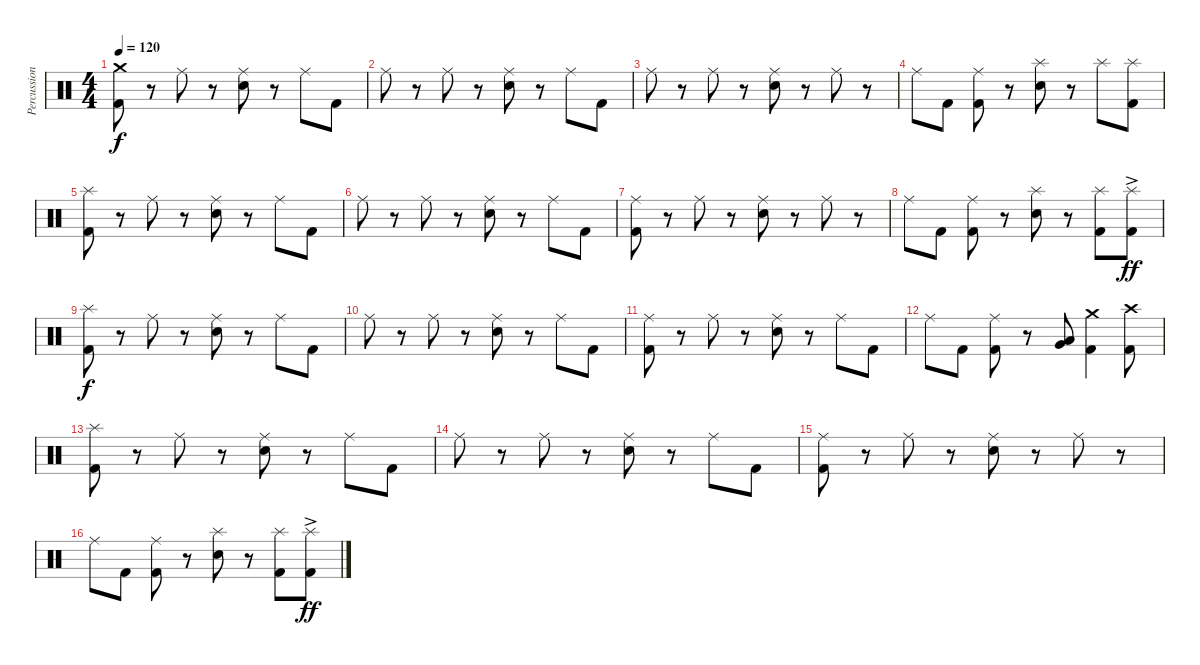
\track ("Percussion" "Percussion") {instrument percussion}
\staff {score}
\articulation defaults
\ts (4 4)
\tempo 120
\clef neutral
\ks c
("Kick (hit) 2" "Crash medium (hit)").8{dy f} r.8 "Ride (middle)".8 r.8 ("Electric Snare (hit)" "Ride (middle)").8 r.8 "Ride (middle)".8 "Kick (hit) 2".8 |
"Ride (middle)".8 r.8 "Ride (middle)".8 r.8 ("Electric Snare (hit)" "Ride (middle)").8 r.8 "Ride (middle)".8 "Kick (hit) 2".8 |
"Ride (middle)".8 r.8 "Ride (middle)".8 r.8 ("Electric Snare (hit)" "Ride (middle)").8 r.8 "Ride (middle)".8 r.8 |
"Ride (middle)".8 "Kick (hit) 2".8 ("Kick (hit) 2" "Ride (middle)").8 r.8 ("Splash (hit)" "Electric Snare (hit)").8 r.8 "Splash (hit)".8 ("Splash (hit)" "Kick (hit) 2").8 |
("Kick (hit) 2" "Splash (hit)").8 r.8 "Ride (middle)".8 r.8 ("Electric Snare (hit)" "Ride (middle)").8 r.8 "Ride (middle)".8 "Kick (hit) 2".8 |
"Ride (middle)".8 r.8 "Ride (middle)".8 r.8 ("Electric Snare (hit)" "Ride (middle)").8 r.8 "Ride (middle)".8 "Kick (hit) 2".8 |
("Kick (hit) 2" "Ride (middle)").8 r.8 "Ride (middle)".8 r.8 ("Electric Snare (hit)" "Ride (middle)").8 r.8 "Ride (middle)".8 r.8 |
"Ride (middle)".8 "Kick (hit) 2".8 ("Kick (hit) 2" "Ride (middle)").8 r.8 ("Splash (hit)" "Electric Snare (hit)").8 r.8 ("Splash (hit)" "Kick (hit) 2").8 ("Splash (hit)" "Kick (hit) 2"{ac}).8{dy ff} |
("Kick (hit) 2" "Splash (hit)").8{dy f} r.8 "Ride (middle)".8 r.8 ("Electric Snare (hit)" "Ride (middle)").8 r.8 "Ride (middle)".8 "Kick (hit) 2".8 |
"Ride (middle)".8 r.8 "Ride (middle)".8 r.8 ("Electric Snare (hit)" "Ride (middle)").8 r.8 "Ride (middle)".8 "Kick (hit) 2".8 |
("Kick (hit) 2" "Ride (middle)").8 r.8 "Ride (middle)".8 r.8 ("Electric Snare (hit)" "Ride (middle)").8 r.8 "Ride (middle)".8 "Kick (hit) 2".8 |
"Ride (middle)".8 "Kick (hit) 2".8 ("Kick (hit) 2" "Ride (middle)").8 r.8 ("Very Low Tom (hit)" "Low Floor Tom (hit)").8 ("Crash medium (hit)" "Kick (hit) 2").4 ("Kick (hit) 2" "Crash high (hit)").8 |
("Kick (hit) 2" "Splash (hit)").8 r.8 "Ride (middle)".8 r.8 ("Electric Snare (hit)" "Ride (middle)").8 r.8 "Ride (middle)".8 "Kick (hit) 2".8 |
"Ride (middle)".8 r.8 "Ride (middle)".8 r.8 ("Electric Snare (hit)" "Ride (middle)").8 r.8 "Ride (middle)".8 "Kick (hit) 2".8 |
("Kick (hit) 2" "Ride (middle)").8 r.8 "Ride (middle)".8 r.8 ("Electric Snare (hit)" "Ride (middle)").8 r.8 "Ride (middle)".8 r.8 |
"Ride (middle)".8 "Kick (hit) 2".8 ("Kick (hit) 2" "Ride (middle)").8 r.8 ("Splash (hit)" "Electric Snare (hit)").8 r.8 ("Splash (hit)" "Kick (hit) 2").8 ("Splash (hit)" "Kick (hit) 2"{ac}).8{dy ff}
